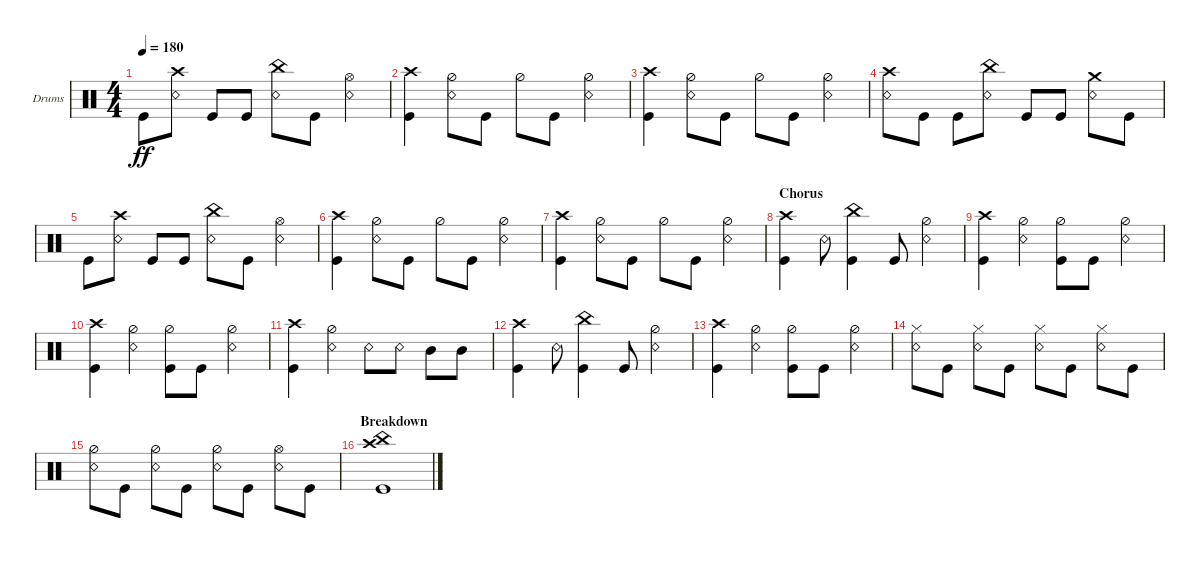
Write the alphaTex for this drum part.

\defaultSystemsLayout 4
\bracketExtendMode groupsimilarinstruments
\firstSystemTrackNameOrientation horizontal
\otherSystemsTrackNameOrientation horizontal
\track ("Drumkit" "Drums") {instrument percussion}
\staff {score}
\articulation defaults
\ts (4 4)
\tempo 180
\clef neutral
\ks c "Kick (hit)".8{dy ff}
("Snare (rim shot)" "Crash high (hit)").8 "Kick (hit)".8 "Kick (hit)".8 ("Snare (rim shot)" "China (hit)").8 "Kick (hit)".8 ("Snare (rim shot)" "Hi-Hat (open)").4 |
("Crash high (hit)" "Kick (hit)").4 ("Snare (rim shot)" "Hi-Hat (half)").8 "Kick (hit)".8 "Hi-Hat (half)".8 "Kick (hit)".8 ("Snare (rim shot)" "Hi-Hat (half)").4 |
("Crash high (hit)" "Kick (hit)").4 ("Snare (rim shot)" "Hi-Hat (half)").8 "Kick (hit)".8 "Hi-Hat (half)".8 "Kick (hit)".8 ("Snare (rim shot)" "Hi-Hat (half)").4 |
("Crash high (hit)" "Snare (rim shot)").8 "Kick (hit)".8 "Kick (hit)".8 ("Snare (rim shot)" "China (hit)").8 "Kick (hit)".8 "Kick (hit)".8 ("Snare (rim shot)" "Crash medium (hit)").8 "Kick (hit)".8 |
"Kick (hit)".8 ("Snare (rim shot)" "Crash high (hit)").8 "Kick (hit)".8 "Kick (hit)".8 ("Snare (rim shot)" "China (hit)").8 "Kick (hit)".8 ("Snare (rim shot)" "Hi-Hat (open)").4 |
("Crash high (hit)" "Kick (hit)").4 ("Snare (rim shot)" "Hi-Hat (half)").8 "Kick (hit)".8 "Hi-Hat (half)".8 "Kick (hit)".8 ("Snare (rim shot)" "Hi-Hat (half)").4 |
("Crash high (hit)" "Kick (hit)").4 ("Snare (rim shot)" "Hi-Hat (half)").8 "Kick (hit)".8 "Hi-Hat (half)".8 "Kick (hit)".8 ("Snare (rim shot)" "Hi-Hat (half)").4 |
\section ("" "Chorus")
("Crash high (hit)" "Kick (hit)").4 "Snare (rim shot)".8 ("China (hit)" "Kick (hit)").4 "Kick (hit)".8 ("Snare (rim shot)" "Hi-Hat (half)").4 |
("Crash high (hit)" "Kick (hit)").4 ("Snare (rim shot)" "Hi-Hat (half)").4 ("Kick (hit)" "Hi-Hat (half)").8 "Kick (hit)".8 ("Snare (rim shot)" "Hi-Hat (half)").4 |
("Crash high (hit)" "Kick (hit)").4 ("Snare (rim shot)" "Hi-Hat (half)").4 ("Kick (hit)" "Hi-Hat (half)").8 "Kick (hit)".8 ("Snare (rim shot)" "Hi-Hat (half)").4 |
("Crash high (hit)" "Kick (hit)").4 ("Snare (rim shot)" "Hi-Hat (half)").4 "Snare (rim shot)".8 "Snare (rim shot)".8 "Mid Tom (hit)".8 "Mid Tom (hit)".8 |
("Crash high (hit)" "Kick (hit)").4 "Snare (rim shot)".8 ("China (hit)" "Kick (hit)").4 "Kick (hit)".8 ("Snare (rim shot)" "Hi-Hat (half)").4 |
("Crash high (hit)" "Kick (hit)").4 ("Snare (rim shot)" "Hi-Hat (half)").4 ("Kick (hit)" "Hi-Hat (half)").8 "Kick (hit)".8 ("Snare (rim shot)" "Hi-Hat (half)").4 |
("Snare (rim shot)" "Hi-Hat (closed)").8 "Kick (hit)".8 ("Snare (rim shot)" "Hi-Hat (closed)").8 "Kick (hit)".8 ("Snare (rim shot)" "Hi-Hat (closed)").8 "Kick (hit)".8 ("Snare (rim shot)" "Hi-Hat (closed)").8 "Kick (hit)".8 |
("Snare (rim shot)" "Hi-Hat (half)").8 "Kick (hit)".8 ("Snare (rim shot)" "Hi-Hat (half)").8 "Kick (hit)".8 ("Snare (rim shot)" "Hi-Hat (half)").8 "Kick (hit)".8 ("Snare (rim shot)" "Hi-Hat (open)").8 "Kick (hit)".8 |
\section ("" "Breakdown")
("Crash high (hit)" "China (hit)" "Kick (hit)").1
